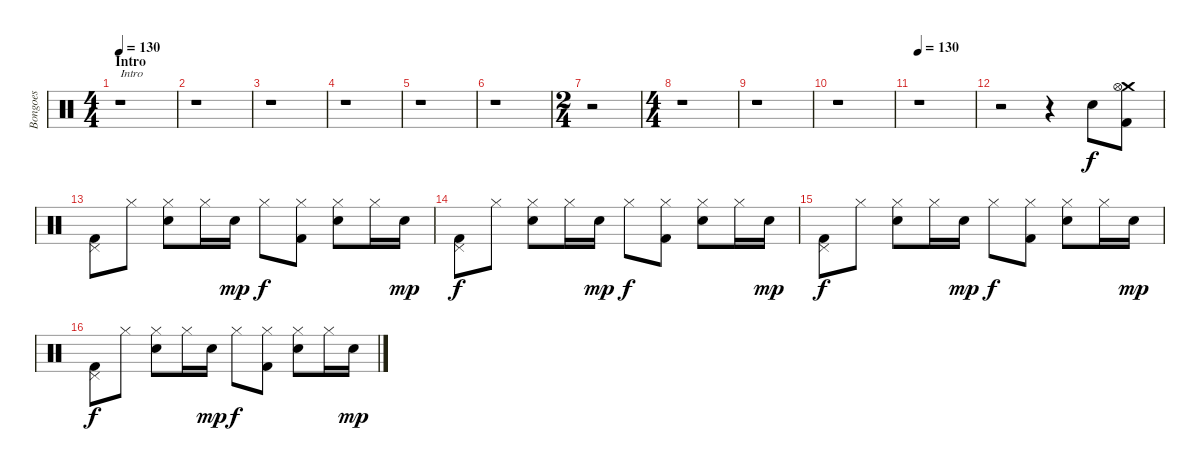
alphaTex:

\track ("Bongoes" "Bongoes") {instrument percussion}
\staff {score}
\articulation defaults
\ts (4 4)
\section ("" "Intro")
\tempo 130
\clef neutral
\ks c
r.1{txt "Intro" dy f} |
r.1 |
r.1 |
r.1 |
r.1 |
r.1 |
\ts (2 4)
r.2 |
\ts (4 4)
r.1 |
r.1 |
r.1 |
\tempo 130
r.1 |
r.2 r.4 "Snare (hit) 2".8 ("Kick (hit) 2" "Crash medium (hit)" "Hi-Hat (open)").8 |
("Kick (hit) 2" "Pedal Hi-Hat (hit)").8 "Hi-Hat (closed)".8 ("Snare (hit) 2" "Hi-Hat (closed)").8 "Hi-Hat (closed)".16 "Snare (hit) 2".16{dy mp} "Hi-Hat (closed)".8{dy f} ("Kick (hit) 2" "Hi-Hat (closed)").8 ("Snare (hit) 2" "Hi-Hat (closed)").8 "Hi-Hat (closed)".16 "Snare (hit) 2".16{dy mp} |
("Kick (hit) 2" "Pedal Hi-Hat (hit)").8{dy f} "Hi-Hat (closed)".8 ("Snare (hit) 2" "Hi-Hat (closed)").8 "Hi-Hat (closed)".16 "Snare (hit) 2".16{dy mp} "Hi-Hat (closed)".8{dy f} ("Kick (hit) 2" "Hi-Hat (closed)").8 ("Snare (hit) 2" "Hi-Hat (closed)").8 "Hi-Hat (closed)".16 "Snare (hit) 2".16{dy mp} |
("Kick (hit) 2" "Pedal Hi-Hat (hit)").8{dy f} "Hi-Hat (closed)".8 ("Snare (hit) 2" "Hi-Hat (closed)").8 "Hi-Hat (closed)".16 "Snare (hit) 2".16{dy mp} "Hi-Hat (closed)".8{dy f} ("Kick (hit) 2" "Hi-Hat (closed)").8 ("Snare (hit) 2" "Hi-Hat (closed)").8 "Hi-Hat (closed)".16 "Snare (hit) 2".16{dy mp} |
("Kick (hit) 2" "Pedal Hi-Hat (hit)").8{dy f} "Hi-Hat (closed)".8 ("Snare (hit) 2" "Hi-Hat (closed)").8 "Hi-Hat (closed)".16 "Snare (hit) 2".16{dy mp} "Hi-Hat (closed)".8{dy f} ("Kick (hit) 2" "Hi-Hat (closed)").8 ("Snare (hit) 2" "Hi-Hat (closed)").8 "Hi-Hat (closed)".16 "Snare (hit) 2".16{dy mp}
